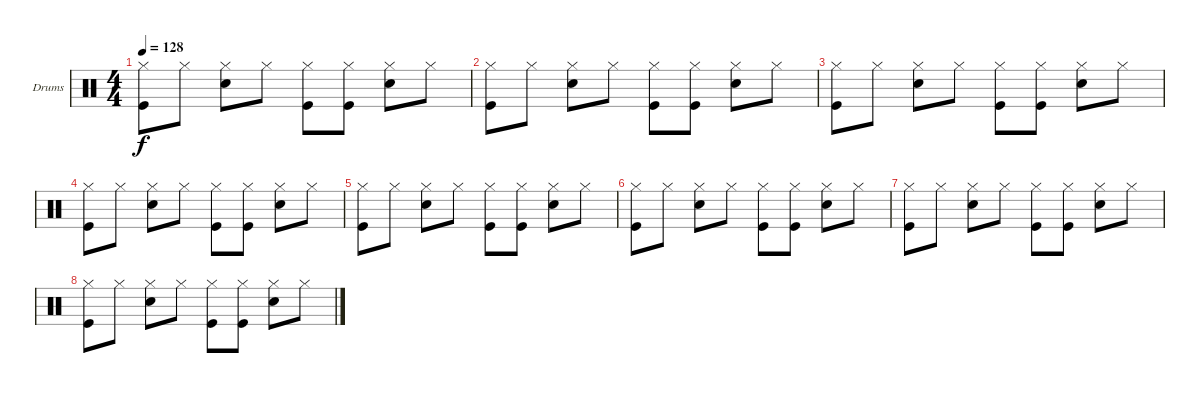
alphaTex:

\bracketExtendMode groupsimilarinstruments
\firstSystemTrackNameOrientation horizontal
\otherSystemsTrackNameOrientation horizontal
\track ("Drumkit" "Drums") {instrument percussion}
\staff {score}
\articulation defaults
\ts (4 4)
\tempo 128
\clef neutral
\ks c
("Hi-Hat (closed)" "Kick (hit)").8{dy f} "Hi-Hat (closed)".8 ("Hi-Hat (closed)" "Snare (hit) 2").8 "Hi-Hat (closed)".8 ("Hi-Hat (closed)" "Kick (hit)").8 ("Hi-Hat (closed)" "Kick (hit)").8 ("Hi-Hat (closed)" "Snare (hit) 2").8 "Hi-Hat (closed)".8 |
("Hi-Hat (closed)" "Kick (hit)").8 "Hi-Hat (closed)".8 ("Hi-Hat (closed)" "Snare (hit) 2").8 "Hi-Hat (closed)".8 ("Hi-Hat (closed)" "Kick (hit)").8 ("Hi-Hat (closed)" "Kick (hit)").8 ("Hi-Hat (closed)" "Snare (hit) 2").8 "Hi-Hat (closed)".8 |
("Hi-Hat (closed)" "Kick (hit)").8 "Hi-Hat (closed)".8 ("Hi-Hat (closed)" "Snare (hit) 2").8 "Hi-Hat (closed)".8 ("Hi-Hat (closed)" "Kick (hit)").8 ("Hi-Hat (closed)" "Kick (hit)").8 ("Hi-Hat (closed)" "Snare (hit) 2").8 "Hi-Hat (closed)".8 |
("Hi-Hat (closed)" "Kick (hit)").8 "Hi-Hat (closed)".8 ("Hi-Hat (closed)" "Snare (hit) 2").8 "Hi-Hat (closed)".8 ("Hi-Hat (closed)" "Kick (hit)").8 ("Hi-Hat (closed)" "Kick (hit)").8 ("Hi-Hat (closed)" "Snare (hit) 2").8 "Hi-Hat (closed)".8 |
("Hi-Hat (closed)" "Kick (hit)").8 "Hi-Hat (closed)".8 ("Hi-Hat (closed)" "Snare (hit) 2").8 "Hi-Hat (closed)".8 ("Hi-Hat (closed)" "Kick (hit)").8 ("Hi-Hat (closed)" "Kick (hit)").8 ("Hi-Hat (closed)" "Snare (hit) 2").8 "Hi-Hat (closed)".8 |
("Hi-Hat (closed)" "Kick (hit)").8 "Hi-Hat (closed)".8 ("Hi-Hat (closed)" "Snare (hit) 2").8 "Hi-Hat (closed)".8 ("Hi-Hat (closed)" "Kick (hit)").8 ("Hi-Hat (closed)" "Kick (hit)").8 ("Hi-Hat (closed)" "Snare (hit) 2").8 "Hi-Hat (closed)".8 |
("Hi-Hat (closed)" "Kick (hit)").8 "Hi-Hat (closed)".8 ("Hi-Hat (closed)" "Snare (hit) 2").8 "Hi-Hat (closed)".8 ("Hi-Hat (closed)" "Kick (hit)").8 ("Hi-Hat (closed)" "Kick (hit)").8 ("Hi-Hat (closed)" "Snare (hit) 2").8 "Hi-Hat (closed)".8 |
("Hi-Hat (closed)" "Kick (hit)").8 "Hi-Hat (closed)".8 ("Hi-Hat (closed)" "Snare (hit) 2").8 "Hi-Hat (closed)".8 ("Hi-Hat (closed)" "Kick (hit)").8 ("Hi-Hat (closed)" "Kick (hit)").8 ("Hi-Hat (closed)" "Snare (hit) 2").8 "Hi-Hat (closed)".8
